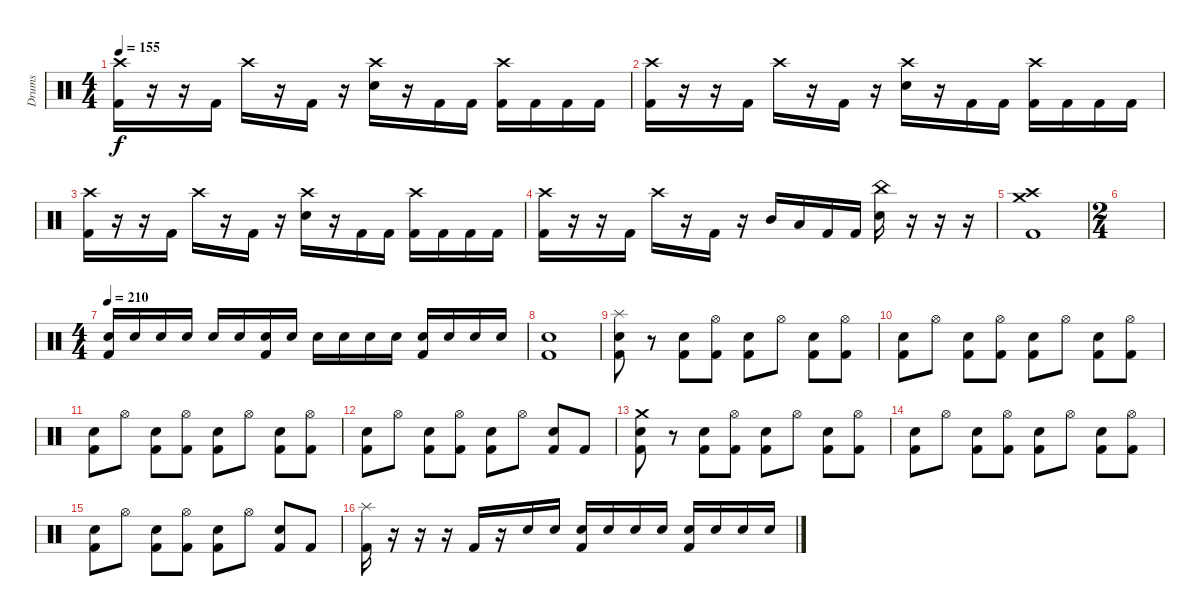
\track ("Drums" "Drums") {instrument percussion}
\staff {score}
\articulation defaults
\ts (4 4)
\tempo 155
\clef neutral
\ks c
("Crash high (hit)" "Kick (hit) 2").16{dy f} r.16 r.16 "Kick (hit) 2".16 "Crash high (hit)".16 r.16 "Kick (hit) 2".16 r.16 ("Crash high (hit)" "Electric Snare (hit)").16 r.16 "Kick (hit) 2".16 "Kick (hit) 2".16 ("Crash high (hit)" "Kick (hit) 2").16 "Kick (hit) 2".16 "Kick (hit) 2".16 "Kick (hit) 2".16 |
("Crash high (hit)" "Kick (hit) 2").16 r.16 r.16 "Kick (hit) 2".16 "Crash high (hit)".16 r.16 "Kick (hit) 2".16 r.16 ("Crash high (hit)" "Electric Snare (hit)").16 r.16 "Kick (hit) 2".16 "Kick (hit) 2".16 ("Crash high (hit)" "Kick (hit) 2").16 "Kick (hit) 2".16 "Kick (hit) 2".16 "Kick (hit) 2".16 |
("Crash high (hit)" "Kick (hit) 2").16 r.16 r.16 "Kick (hit) 2".16 "Crash high (hit)".16 r.16 "Kick (hit) 2".16 r.16 ("Crash high (hit)" "Electric Snare (hit)").16 r.16 "Kick (hit) 2".16 "Kick (hit) 2".16 ("Crash high (hit)" "Kick (hit) 2").16 "Kick (hit) 2".16 "Kick (hit) 2".16 "Kick (hit) 2".16 |
("Crash high (hit)" "Kick (hit) 2").16 r.16 r.16 "Kick (hit) 2".16 "Crash high (hit)".16 r.16 "Kick (hit) 2".16 r.16 "Mid Tom (hit)".16 "Low Tom (hit)".16 "Kick (hit) 2".16 "Kick (hit) 2".16 ("China (hit)" "Electric Snare (hit)").16 r.16 r.16 r.16 |
("Crash high (hit)" "Crash medium (hit)" "Kick (hit) 2").1 |
\ts (2 4)
|
\ts (4 4)
\tempo 210
("Electric Snare (hit)" "Kick (hit) 2").16 "Electric Snare (hit)".16 "Electric Snare (hit)".16 "Electric Snare (hit)".16 "Electric Snare (hit)".16 "Electric Snare (hit)".16 ("Electric Snare (hit)" "Kick (hit) 2").16 "Electric Snare (hit)".16 "Electric Snare (hit)".16 "Electric Snare (hit)".16 "Electric Snare (hit)".16 "Electric Snare (hit)".16 ("Electric Snare (hit)" "Kick (hit) 2").16 "Electric Snare (hit)".16 "Electric Snare (hit)".16 "Electric Snare (hit)".16 |
("Electric Snare (hit)" "Kick (hit) 2").1 |
("Splash (hit)" "Electric Snare (hit)" "Kick (hit) 2").8 r.8 ("Electric Snare (hit)" "Kick (hit) 2").8 ("Hi-Hat (open)" "Kick (hit) 2").8 ("Electric Snare (hit)" "Kick (hit) 2").8 "Hi-Hat (open)".8 ("Electric Snare (hit)" "Kick (hit) 2").8 ("Hi-Hat (open)" "Kick (hit) 2").8 |
("Electric Snare (hit)" "Kick (hit) 2").8 "Hi-Hat (open)".8 ("Electric Snare (hit)" "Kick (hit) 2").8 ("Hi-Hat (open)" "Kick (hit) 2").8 ("Electric Snare (hit)" "Kick (hit) 2").8 "Hi-Hat (open)".8 ("Electric Snare (hit)" "Kick (hit) 2").8 ("Hi-Hat (open)" "Kick (hit) 2").8 |
("Electric Snare (hit)" "Kick (hit) 2").8 "Hi-Hat (open)".8 ("Electric Snare (hit)" "Kick (hit) 2").8 ("Hi-Hat (open)" "Kick (hit) 2").8 ("Electric Snare (hit)" "Kick (hit) 2").8 "Hi-Hat (open)".8 ("Electric Snare (hit)" "Kick (hit) 2").8 ("Hi-Hat (open)" "Kick (hit) 2").8 |
("Electric Snare (hit)" "Kick (hit) 2").8 "Hi-Hat (open)".8 ("Electric Snare (hit)" "Kick (hit) 2").8 ("Hi-Hat (open)" "Kick (hit) 2").8 ("Electric Snare (hit)" "Kick (hit) 2").8 "Hi-Hat (open)".8 ("Electric Snare (hit)" "Kick (hit) 2").8 "Kick (hit) 2".8 |
("Crash medium (hit)" "Electric Snare (hit)" "Kick (hit) 2").8 r.8 ("Electric Snare (hit)" "Kick (hit) 2").8 ("Hi-Hat (open)" "Kick (hit) 2").8 ("Electric Snare (hit)" "Kick (hit) 2").8 "Hi-Hat (open)".8 ("Electric Snare (hit)" "Kick (hit) 2").8 ("Hi-Hat (open)" "Kick (hit) 2").8 |
("Electric Snare (hit)" "Kick (hit) 2").8 "Hi-Hat (open)".8 ("Electric Snare (hit)" "Kick (hit) 2").8 ("Hi-Hat (open)" "Kick (hit) 2").8 ("Electric Snare (hit)" "Kick (hit) 2").8 "Hi-Hat (open)".8 ("Electric Snare (hit)" "Kick (hit) 2").8 ("Hi-Hat (open)" "Kick (hit) 2").8 |
("Electric Snare (hit)" "Kick (hit) 2").8 "Hi-Hat (open)".8 ("Electric Snare (hit)" "Kick (hit) 2").8 ("Hi-Hat (open)" "Kick (hit) 2").8 ("Electric Snare (hit)" "Kick (hit) 2").8 "Hi-Hat (open)".8 ("Electric Snare (hit)" "Kick (hit) 2").8 "Kick (hit) 2".8 |
("Splash (hit)" "Kick (hit) 2").16 r.16 r.16 r.16 "Kick (hit) 2".16 r.16 "Electric Snare (hit)".16 "Electric Snare (hit)".16 ("Electric Snare (hit)" "Kick (hit) 2").16 "Electric Snare (hit)".16 "Electric Snare (hit)".16 "Electric Snare (hit)".16 ("Electric Snare (hit)" "Kick (hit) 2").16 "Electric Snare (hit)".16 "Electric Snare (hit)".16 "Electric Snare (hit)".16
